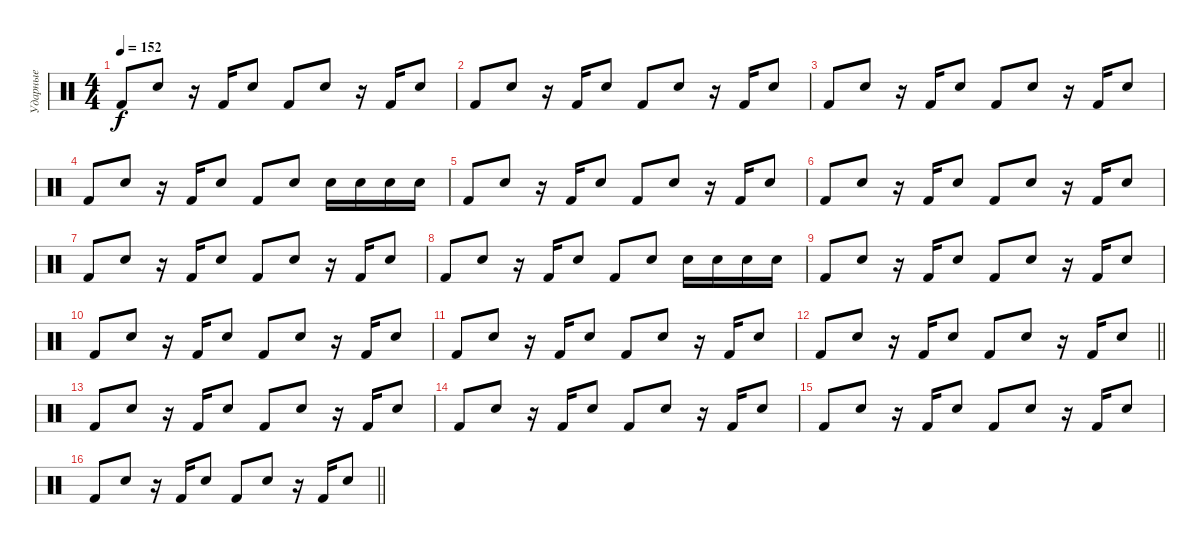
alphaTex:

\track ("Ударные" "Ударные") {instrument percussion}
\staff {score}
\articulation defaults
\ts (4 4)
\tempo 152
\clef neutral
\ks c "Kick (hit) 2".8{dy f} "Snare (hit) 2".8
r.16 "Kick (hit) 2".16 "Snare (hit) 2".8 "Kick (hit) 2".8 "Snare (hit) 2".8 r.16 "Kick (hit) 2".16 "Snare (hit) 2".8 |
"Kick (hit) 2".8 "Snare (hit) 2".8 r.16 "Kick (hit) 2".16 "Snare (hit) 2".8 "Kick (hit) 2".8 "Snare (hit) 2".8 r.16 "Kick (hit) 2".16 "Snare (hit) 2".8 |
"Kick (hit) 2".8 "Snare (hit) 2".8 r.16 "Kick (hit) 2".16 "Snare (hit) 2".8 "Kick (hit) 2".8 "Snare (hit) 2".8 r.16 "Kick (hit) 2".16 "Snare (hit) 2".8 |
"Kick (hit) 2".8 "Snare (hit) 2".8 r.16 "Kick (hit) 2".16 "Snare (hit) 2".8 "Kick (hit) 2".8 "Snare (hit) 2".8 "Snare (hit) 2".16 "Snare (hit) 2".16 "Snare (hit) 2".16 "Snare (hit) 2".16 |
"Kick (hit) 2".8 "Snare (hit) 2".8 r.16 "Kick (hit) 2".16 "Snare (hit) 2".8 "Kick (hit) 2".8 "Snare (hit) 2".8 r.16 "Kick (hit) 2".16 "Snare (hit) 2".8 |
"Kick (hit) 2".8 "Snare (hit) 2".8 r.16 "Kick (hit) 2".16 "Snare (hit) 2".8 "Kick (hit) 2".8 "Snare (hit) 2".8 r.16 "Kick (hit) 2".16 "Snare (hit) 2".8 |
"Kick (hit) 2".8 "Snare (hit) 2".8 r.16 "Kick (hit) 2".16 "Snare (hit) 2".8 "Kick (hit) 2".8 "Snare (hit) 2".8 r.16 "Kick (hit) 2".16 "Snare (hit) 2".8 |
"Kick (hit) 2".8 "Snare (hit) 2".8 r.16 "Kick (hit) 2".16 "Snare (hit) 2".8 "Kick (hit) 2".8 "Snare (hit) 2".8 "Snare (hit) 2".16 "Snare (hit) 2".16 "Snare (hit) 2".16 "Snare (hit) 2".16 |
"Kick (hit) 2".8 "Snare (hit) 2".8 r.16 "Kick (hit) 2".16 "Snare (hit) 2".8 "Kick (hit) 2".8 "Snare (hit) 2".8 r.16 "Kick (hit) 2".16 "Snare (hit) 2".8 |
"Kick (hit) 2".8 "Snare (hit) 2".8 r.16 "Kick (hit) 2".16 "Snare (hit) 2".8 "Kick (hit) 2".8 "Snare (hit) 2".8 r.16 "Kick (hit) 2".16 "Snare (hit) 2".8 |
"Kick (hit) 2".8 "Snare (hit) 2".8 r.16 "Kick (hit) 2".16 "Snare (hit) 2".8 "Kick (hit) 2".8 "Snare (hit) 2".8 r.16 "Kick (hit) 2".16 "Snare (hit) 2".8 |
\barLineRight lightlight "Kick (hit) 2".8 "Snare (hit) 2".8
r.16 "Kick (hit) 2".16 "Snare (hit) 2".8 "Kick (hit) 2".8 "Snare (hit) 2".8 r.16 "Kick (hit) 2".16 "Snare (hit) 2".8 |
"Kick (hit) 2".8 "Snare (hit) 2".8 r.16 "Kick (hit) 2".16 "Snare (hit) 2".8 "Kick (hit) 2".8 "Snare (hit) 2".8 r.16 "Kick (hit) 2".16 "Snare (hit) 2".8 |
"Kick (hit) 2".8 "Snare (hit) 2".8 r.16 "Kick (hit) 2".16 "Snare (hit) 2".8 "Kick (hit) 2".8 "Snare (hit) 2".8 r.16 "Kick (hit) 2".16 "Snare (hit) 2".8 |
"Kick (hit) 2".8 "Snare (hit) 2".8 r.16 "Kick (hit) 2".16 "Snare (hit) 2".8 "Kick (hit) 2".8 "Snare (hit) 2".8 r.16 "Kick (hit) 2".16 "Snare (hit) 2".8 |
\barLineRight lightlight "Kick (hit) 2".8 "Snare (hit) 2".8
r.16 "Kick (hit) 2".16 "Snare (hit) 2".8 "Kick (hit) 2".8 "Snare (hit) 2".8 r.16 "Kick (hit) 2".16 "Snare (hit) 2".8
